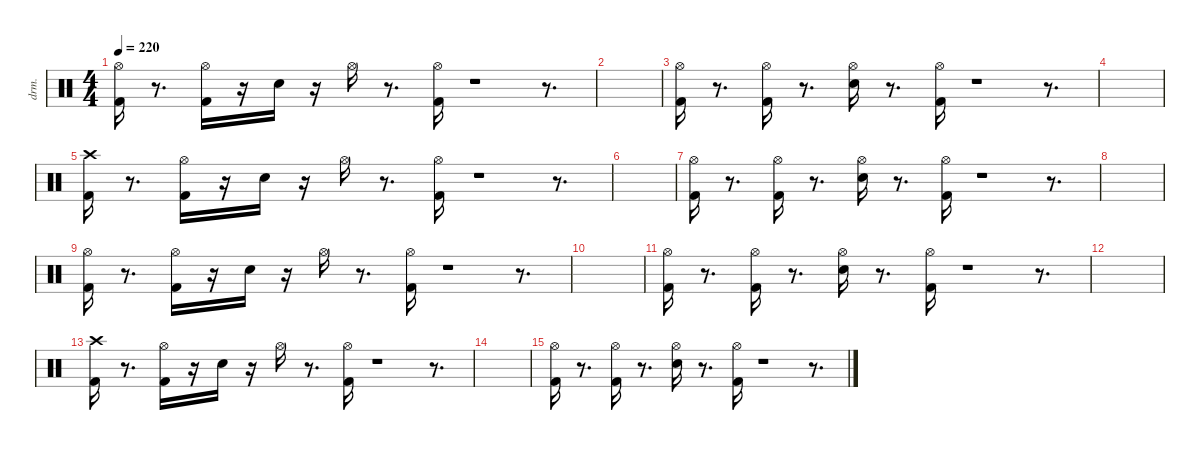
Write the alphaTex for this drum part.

\defaultSystemsLayout 4
\hideDynamics
\bracketExtendMode nobrackets
\otherSystemsTrackNameOrientation horizontal
\track ("EZdrummer 3" "drm.") {mute instrument percussion}
\staff {score}
\articulation defaults
\ts (4 4)
\tempo 220
\clef neutral
\ks c
("Kick (hit) 2" "Hi-Hat (open)"{acc #}).16{dy fff beam Down} r.8{d beam Down} ("Kick (hit) 2" "Hi-Hat (open)"{acc #}).16{dy ff beam Down} r.16{beam Down} "Snare (hit) 2".16{beam Down} r.16{beam Down} "Hi-Hat (open)"{acc #}.16{beam Down} r.8{d beam Down} ("Kick (hit) 2" "Hi-Hat (open)"{acc #}).16{beam Down} r.1{beam Down} r.8{d beam Down} |
|
("Kick (hit) 2" "Hi-Hat (open)"{acc #}).16{beam Down} r.8{d beam Down} ("Kick (hit) 2" "Hi-Hat (open)"{acc #}).16{beam Down} r.8{d beam Down} ("Snare (hit) 2" "Hi-Hat (open)"{acc #}).16{beam Down} r.8{d beam Down} ("Kick (hit) 2" "Hi-Hat (open)"{acc #}).16{dy mf beam Down} r.1{beam Down} r.8{d beam Down} |
|
("Kick (hit) 2" "Crash high (hit)"{acc #}).16{dy fff beam Down} r.8{d beam Down} ("Kick (hit) 2" "Hi-Hat (open)"{acc #}).16{dy ff beam Down} r.16{beam Down} "Snare (hit) 2".16{beam Down} r.16{beam Down} "Hi-Hat (open)"{acc #}.16{beam Down} r.8{d beam Down} ("Kick (hit) 2" "Hi-Hat (open)"{acc #}).16{beam Down} r.1{beam Down} r.8{d beam Down} |
|
("Kick (hit) 2" "Hi-Hat (open)"{acc #}).16{beam Down} r.8{d beam Down} ("Kick (hit) 2" "Hi-Hat (open)"{acc #}).16{beam Down} r.8{d beam Down} ("Snare (hit) 2" "Hi-Hat (open)"{acc #}).16{beam Down} r.8{d beam Down} ("Kick (hit) 2" "Hi-Hat (open)"{acc #}).16{dy mf beam Down} r.1{beam Down} r.8{d beam Down} |
|
("Kick (hit) 2" "Hi-Hat (open)"{acc #}).16{dy fff beam Down} r.8{d beam Down} ("Kick (hit) 2" "Hi-Hat (open)"{acc #}).16{dy ff beam Down} r.16{beam Down} "Snare (hit) 2".16{beam Down} r.16{beam Down} "Hi-Hat (open)"{acc #}.16{beam Down} r.8{d beam Down} ("Kick (hit) 2" "Hi-Hat (open)"{acc #}).16{beam Down} r.1{beam Down} r.8{d beam Down} |
|
("Kick (hit) 2" "Hi-Hat (open)"{acc #}).16{beam Down} r.8{d beam Down} ("Kick (hit) 2" "Hi-Hat (open)"{acc #}).16{beam Down} r.8{d beam Down} ("Snare (hit) 2" "Hi-Hat (open)"{acc #}).16{beam Down} r.8{d beam Down} ("Kick (hit) 2" "Hi-Hat (open)"{acc #}).16{dy mf beam Down} r.1{beam Down} r.8{d beam Down} |
|
("Kick (hit) 2" "Crash high (hit)"{acc #}).16{dy fff beam Down} r.8{d beam Down} ("Kick (hit) 2" "Hi-Hat (open)"{acc #}).16{dy ff beam Down} r.16{beam Down} "Snare (hit) 2".16{beam Down} r.16{beam Down} "Hi-Hat (open)"{acc #}.16{beam Down} r.8{d beam Down} ("Kick (hit) 2" "Hi-Hat (open)"{acc #}).16{beam Down} r.1{beam Down} r.8{d beam Down} |
|
("Kick (hit) 2" "Hi-Hat (open)"{acc #}).16{beam Down} r.8{d beam Down} ("Kick (hit) 2" "Hi-Hat (open)"{acc #}).16{beam Down} r.8{d beam Down} ("Snare (hit) 2" "Hi-Hat (open)"{acc #}).16{beam Down} r.8{d beam Down} ("Kick (hit) 2" "Hi-Hat (open)"{acc #}).16{dy mf beam Down} r.1{beam Down} r.8{d beam Down}
